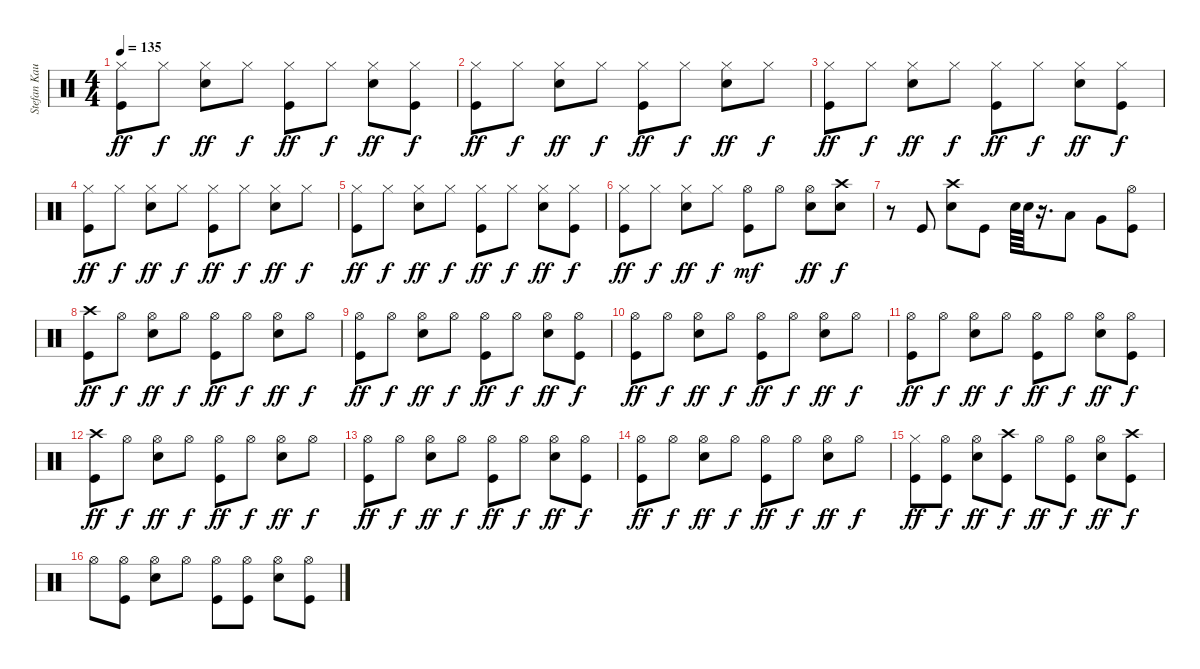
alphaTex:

\track ("Stefan Kaufmann" "Stefan Kau") {instrument percussion}
\staff {score}
\articulation defaults
\ts (4 4)
\tempo 135
\clef neutral
\ks c
("Hi-Hat (closed)" "Kick (hit)").8{dy ff} "Hi-Hat (closed)".8{dy f} ("Hi-Hat (closed)" "Snare (hit) 2").8{dy ff} "Hi-Hat (closed)".8{dy f} ("Hi-Hat (closed)" "Kick (hit)").8{dy ff} "Hi-Hat (closed)".8{dy f} ("Hi-Hat (closed)" "Snare (hit) 2").8{dy ff} ("Hi-Hat (closed)" "Kick (hit)").8{dy f} |
("Hi-Hat (closed)" "Kick (hit)").8{dy ff} "Hi-Hat (closed)".8{dy f} ("Hi-Hat (closed)" "Snare (hit) 2").8{dy ff} "Hi-Hat (closed)".8{dy f} ("Hi-Hat (closed)" "Kick (hit)").8{dy ff} "Hi-Hat (closed)".8{dy f} ("Hi-Hat (closed)" "Snare (hit) 2").8{dy ff} "Hi-Hat (closed)".8{dy f} |
("Hi-Hat (closed)" "Kick (hit)").8{dy ff} "Hi-Hat (closed)".8{dy f} ("Hi-Hat (closed)" "Snare (hit) 2").8{dy ff} "Hi-Hat (closed)".8{dy f} ("Hi-Hat (closed)" "Kick (hit)").8{dy ff} "Hi-Hat (closed)".8{dy f} ("Hi-Hat (closed)" "Snare (hit) 2").8{dy ff} ("Hi-Hat (closed)" "Kick (hit)").8{dy f} |
("Hi-Hat (closed)" "Kick (hit)").8{dy ff} "Hi-Hat (closed)".8{dy f} ("Hi-Hat (closed)" "Snare (hit) 2").8{dy ff} "Hi-Hat (closed)".8{dy f} ("Hi-Hat (closed)" "Kick (hit)").8{dy ff} "Hi-Hat (closed)".8{dy f} ("Hi-Hat (closed)" "Snare (hit) 2").8{dy ff} "Hi-Hat (closed)".8{dy f} |
("Hi-Hat (closed)" "Kick (hit)").8{dy ff} "Hi-Hat (closed)".8{dy f} ("Hi-Hat (closed)" "Snare (hit) 2").8{dy ff} "Hi-Hat (closed)".8{dy f} ("Hi-Hat (closed)" "Kick (hit)").8{dy ff} "Hi-Hat (closed)".8{dy f} ("Hi-Hat (closed)" "Snare (hit) 2").8{dy ff} ("Hi-Hat (closed)" "Kick (hit)").8{dy f} |
("Hi-Hat (closed)" "Kick (hit)").8{dy ff} "Hi-Hat (closed)".8{dy f} ("Hi-Hat (closed)" "Snare (hit) 2").8{dy ff} "Hi-Hat (closed)".8{dy f} ("Hi-Hat (open)" "Kick (hit)").8{dy mf} "Hi-Hat (open)".8 ("Hi-Hat (open)" "Snare (hit) 2").8{dy ff} ("Crash high (hit)" "Snare (hit) 2").8{dy f} |
r.8 "Kick (hit)".8 ("Crash high (hit)" "Snare (hit) 2").8 "Kick (hit)".8 "Snare (hit) 2".64 "Snare (hit) 2".64 r.16{d} "Low Tom (hit)".8 "Very Low Tom (hit)".8 ("Hi-Hat (open)" "Kick (hit)").8 |
("Crash high (hit)" "Kick (hit)").8{dy ff} "Hi-Hat (open)".8{dy f} ("Hi-Hat (open)" "Snare (hit) 2").8{dy ff} "Hi-Hat (open)".8{dy f} ("Hi-Hat (open)" "Kick (hit)").8{dy ff} "Hi-Hat (open)".8{dy f} ("Hi-Hat (open)" "Snare (hit) 2").8{dy ff} "Hi-Hat (open)".8{dy f} |
("Hi-Hat (open)" "Kick (hit)").8{dy ff} "Hi-Hat (open)".8{dy f} ("Hi-Hat (open)" "Snare (hit) 2").8{dy ff} "Hi-Hat (open)".8{dy f} ("Hi-Hat (open)" "Kick (hit)").8{dy ff} "Hi-Hat (open)".8{dy f} ("Hi-Hat (open)" "Snare (hit) 2").8{dy ff} ("Hi-Hat (open)" "Kick (hit)").8{dy f} |
("Hi-Hat (open)" "Kick (hit)").8{dy ff} "Hi-Hat (open)".8{dy f} ("Hi-Hat (open)" "Snare (hit) 2").8{dy ff} "Hi-Hat (open)".8{dy f} ("Hi-Hat (open)" "Kick (hit)").8{dy ff} "Hi-Hat (open)".8{dy f} ("Hi-Hat (open)" "Snare (hit) 2").8{dy ff} "Hi-Hat (open)".8{dy f} |
("Hi-Hat (open)" "Kick (hit)").8{dy ff} "Hi-Hat (open)".8{dy f} ("Hi-Hat (open)" "Snare (hit) 2").8{dy ff} "Hi-Hat (open)".8{dy f} ("Hi-Hat (open)" "Kick (hit)").8{dy ff} "Hi-Hat (open)".8{dy f} ("Hi-Hat (open)" "Snare (hit) 2").8{dy ff} ("Hi-Hat (open)" "Kick (hit)").8{dy f} |
("Crash high (hit)" "Kick (hit)").8{dy ff} "Hi-Hat (open)".8{dy f} ("Hi-Hat (open)" "Snare (hit) 2").8{dy ff} "Hi-Hat (open)".8{dy f} ("Hi-Hat (open)" "Kick (hit)").8{dy ff} "Hi-Hat (open)".8{dy f} ("Hi-Hat (open)" "Snare (hit) 2").8{dy ff} "Hi-Hat (open)".8{dy f} |
("Hi-Hat (open)" "Kick (hit)").8{dy ff} "Hi-Hat (open)".8{dy f} ("Hi-Hat (open)" "Snare (hit) 2").8{dy ff} "Hi-Hat (open)".8{dy f} ("Hi-Hat (open)" "Kick (hit)").8{dy ff} "Hi-Hat (open)".8{dy f} ("Hi-Hat (open)" "Snare (hit) 2").8{dy ff} ("Hi-Hat (open)" "Kick (hit)").8{dy f} |
("Hi-Hat (open)" "Kick (hit)").8{dy ff} "Hi-Hat (open)".8{dy f} ("Hi-Hat (open)" "Snare (hit) 2").8{dy ff} "Hi-Hat (open)".8{dy f} ("Hi-Hat (open)" "Kick (hit)").8{dy ff} "Hi-Hat (open)".8{dy f} ("Hi-Hat (open)" "Snare (hit) 2").8{dy ff} "Hi-Hat (open)".8{dy f} |
("Hi-Hat (closed)" "Kick (hit)").8{dy ff} ("Hi-Hat (open)" "Kick (hit)").8{dy f} ("Hi-Hat (open)" "Snare (hit) 2").8{dy ff} ("Crash high (hit)" "Kick (hit)").8{dy f} "Hi-Hat (open)".8{dy ff} ("Hi-Hat (open)" "Kick (hit)").8{dy f} ("Hi-Hat (open)" "Snare (hit) 2").8{dy ff} ("Crash high (hit)" "Kick (hit)").8{dy f} |
"Hi-Hat (open)".8 ("Hi-Hat (open)" "Kick (hit)").8 ("Hi-Hat (open)" "Snare (hit) 2").8 "Hi-Hat (open)".8 ("Hi-Hat (open)" "Kick (hit)").8 ("Hi-Hat (open)" "Kick (hit)").8 ("Hi-Hat (open)" "Snare (hit) 2").8 ("Hi-Hat (open)" "Kick (hit)").8
